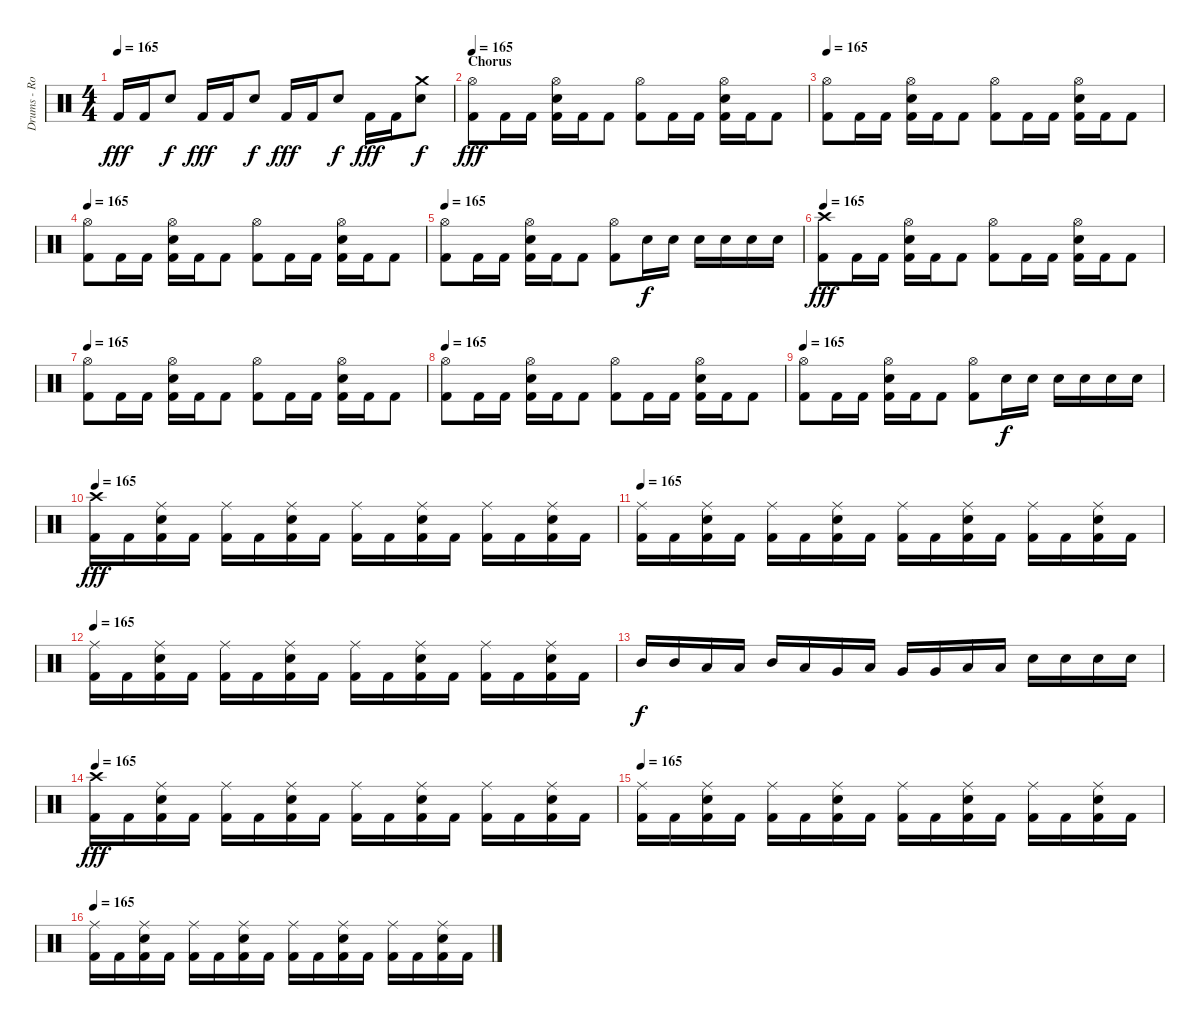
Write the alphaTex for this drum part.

\track ("Drums - Rodrigo" "Drums - Ro") {instrument percussion}
\staff {score}
\articulation defaults
\ts (4 4)
\tempo 165
\clef neutral
\ks c "Kick (hit) 2".16{dy fff} "Kick (hit) 2".16 "Electric Snare (hit)".8{dy f} "Kick (hit) 2".16{dy fff} "Kick (hit) 2".16 "Electric Snare (hit)".8{dy f} "Kick (hit) 2".16{dy fff} "Kick (hit) 2".16 "Electric Snare (hit)".8{dy f} "Kick (hit) 2".16{dy fff} "Kick (hit) 2".16
("Crash medium (hit)" "Electric Snare (hit)").8{dy f} |
\section ("" "Chorus")
\tempo 165
("Hi-Hat (open)" "Kick (hit) 2").8{dy fff} "Kick (hit) 2".16 "Kick (hit) 2".16 ("Hi-Hat (open)" "Electric Snare (hit)" "Kick (hit) 2").16 "Kick (hit) 2".16 "Kick (hit) 2".8 ("Hi-Hat (open)" "Kick (hit) 2").8 "Kick (hit) 2".16 "Kick (hit) 2".16 ("Hi-Hat (open)" "Electric Snare (hit)" "Kick (hit) 2").16 "Kick (hit) 2".16 "Kick (hit) 2".8 |
\tempo 165
("Hi-Hat (open)" "Kick (hit) 2").8 "Kick (hit) 2".16 "Kick (hit) 2".16 ("Hi-Hat (open)" "Electric Snare (hit)" "Kick (hit) 2").16 "Kick (hit) 2".16 "Kick (hit) 2".8 ("Hi-Hat (open)" "Kick (hit) 2").8 "Kick (hit) 2".16 "Kick (hit) 2".16 ("Hi-Hat (open)" "Electric Snare (hit)" "Kick (hit) 2").16 "Kick (hit) 2".16 "Kick (hit) 2".8 |
\tempo 165
("Hi-Hat (open)" "Kick (hit) 2").8 "Kick (hit) 2".16 "Kick (hit) 2".16 ("Hi-Hat (open)" "Electric Snare (hit)" "Kick (hit) 2").16 "Kick (hit) 2".16 "Kick (hit) 2".8 ("Hi-Hat (open)" "Kick (hit) 2").8 "Kick (hit) 2".16 "Kick (hit) 2".16 ("Hi-Hat (open)" "Electric Snare (hit)" "Kick (hit) 2").16 "Kick (hit) 2".16 "Kick (hit) 2".8 |
\tempo 165
("Hi-Hat (open)" "Kick (hit) 2").8 "Kick (hit) 2".16 "Kick (hit) 2".16 ("Hi-Hat (open)" "Electric Snare (hit)" "Kick (hit) 2").16 "Kick (hit) 2".16 "Kick (hit) 2".8 ("Hi-Hat (open)" "Kick (hit) 2").8 "Electric Snare (hit)".16{dy f} "Electric Snare (hit)".16 "Electric Snare (hit)".16 "Electric Snare (hit)".16 "Electric Snare (hit)".16 "Electric Snare (hit)".16 |
\tempo 165
("Crash high (hit)" "Kick (hit) 2").8{dy fff} "Kick (hit) 2".16 "Kick (hit) 2".16 ("Hi-Hat (open)" "Electric Snare (hit)" "Kick (hit) 2").16 "Kick (hit) 2".16 "Kick (hit) 2".8 ("Hi-Hat (open)" "Kick (hit) 2").8 "Kick (hit) 2".16 "Kick (hit) 2".16 ("Hi-Hat (open)" "Electric Snare (hit)" "Kick (hit) 2").16 "Kick (hit) 2".16 "Kick (hit) 2".8 |
\tempo 165
("Hi-Hat (open)" "Kick (hit) 2").8 "Kick (hit) 2".16 "Kick (hit) 2".16 ("Hi-Hat (open)" "Electric Snare (hit)" "Kick (hit) 2").16 "Kick (hit) 2".16 "Kick (hit) 2".8 ("Hi-Hat (open)" "Kick (hit) 2").8 "Kick (hit) 2".16 "Kick (hit) 2".16 ("Hi-Hat (open)" "Electric Snare (hit)" "Kick (hit) 2").16 "Kick (hit) 2".16 "Kick (hit) 2".8 |
\tempo 165
("Hi-Hat (open)" "Kick (hit) 2").8 "Kick (hit) 2".16 "Kick (hit) 2".16 ("Hi-Hat (open)" "Electric Snare (hit)" "Kick (hit) 2").16 "Kick (hit) 2".16 "Kick (hit) 2".8 ("Hi-Hat (open)" "Kick (hit) 2").8 "Kick (hit) 2".16 "Kick (hit) 2".16 ("Hi-Hat (open)" "Electric Snare (hit)" "Kick (hit) 2").16 "Kick (hit) 2".16 "Kick (hit) 2".8 |
\tempo 165
("Hi-Hat (open)" "Kick (hit) 2").8 "Kick (hit) 2".16 "Kick (hit) 2".16 ("Hi-Hat (open)" "Electric Snare (hit)" "Kick (hit) 2").16 "Kick (hit) 2".16 "Kick (hit) 2".8 ("Hi-Hat (open)" "Kick (hit) 2").8 "Electric Snare (hit)".16{dy f} "Electric Snare (hit)".16 "Electric Snare (hit)".16 "Electric Snare (hit)".16 "Electric Snare (hit)".16 "Electric Snare (hit)".16 |
\tempo 165
("Crash high (hit)" "Kick (hit) 2").16{dy fff} "Kick (hit) 2".16 ("Ride (middle)" "Electric Snare (hit)" "Kick (hit) 2").16 "Kick (hit) 2".16 ("Ride (middle)" "Kick (hit) 2").16 "Kick (hit) 2".16 ("Ride (middle)" "Electric Snare (hit)" "Kick (hit) 2").16 "Kick (hit) 2".16 ("Ride (middle)" "Kick (hit) 2").16 "Kick (hit) 2".16 ("Ride (middle)" "Electric Snare (hit)" "Kick (hit) 2").16 "Kick (hit) 2".16 ("Ride (middle)" "Kick (hit) 2").16 "Kick (hit) 2".16 ("Ride (middle)" "Electric Snare (hit)" "Kick (hit) 2").16 "Kick (hit) 2".16 |
\tempo 165
("Ride (middle)" "Kick (hit) 2").16 "Kick (hit) 2".16 ("Ride (middle)" "Electric Snare (hit)" "Kick (hit) 2").16 "Kick (hit) 2".16 ("Ride (middle)" "Kick (hit) 2").16 "Kick (hit) 2".16 ("Ride (middle)" "Electric Snare (hit)" "Kick (hit) 2").16 "Kick (hit) 2".16 ("Ride (middle)" "Kick (hit) 2").16 "Kick (hit) 2".16 ("Ride (middle)" "Electric Snare (hit)" "Kick (hit) 2").16 "Kick (hit) 2".16 ("Ride (middle)" "Kick (hit) 2").16 "Kick (hit) 2".16 ("Ride (middle)" "Electric Snare (hit)" "Kick (hit) 2").16 "Kick (hit) 2".16 |
\tempo 165
("Ride (middle)" "Kick (hit) 2").16 "Kick (hit) 2".16 ("Ride (middle)" "Electric Snare (hit)" "Kick (hit) 2").16 "Kick (hit) 2".16 ("Ride (middle)" "Kick (hit) 2").16 "Kick (hit) 2".16 ("Ride (middle)" "Electric Snare (hit)" "Kick (hit) 2").16 "Kick (hit) 2".16 ("Ride (middle)" "Kick (hit) 2").16 "Kick (hit) 2".16 ("Ride (middle)" "Electric Snare (hit)" "Kick (hit) 2").16 "Kick (hit) 2".16 ("Ride (middle)" "Kick (hit) 2").16 "Kick (hit) 2".16 ("Ride (middle)" "Electric Snare (hit)" "Kick (hit) 2").16 "Kick (hit) 2".16 |
"Mid Tom (hit)".16{dy f} "Mid Tom (hit)".16 "Low Tom (hit)".16 "Low Tom (hit)".16 "Mid Tom (hit)".16 "Low Tom (hit)".16 "Very Low Tom (hit)".16 "Low Floor Tom (hit)".16 "Very Low Tom (hit)".16 "Very Low Tom (hit)".16 "Low Floor Tom (hit)".16 "Low Floor Tom (hit)".16 "Electric Snare (hit)".16 "Electric Snare (hit)".16 "Electric Snare (hit)".16 "Electric Snare (hit)".16 |
\tempo 165
("Crash high (hit)" "Kick (hit) 2").16{dy fff} "Kick (hit) 2".16 ("Ride (middle)" "Electric Snare (hit)" "Kick (hit) 2").16 "Kick (hit) 2".16 ("Ride (middle)" "Kick (hit) 2").16 "Kick (hit) 2".16 ("Ride (middle)" "Electric Snare (hit)" "Kick (hit) 2").16 "Kick (hit) 2".16 ("Ride (middle)" "Kick (hit) 2").16 "Kick (hit) 2".16 ("Ride (middle)" "Electric Snare (hit)" "Kick (hit) 2").16 "Kick (hit) 2".16 ("Ride (middle)" "Kick (hit) 2").16 "Kick (hit) 2".16 ("Ride (middle)" "Electric Snare (hit)" "Kick (hit) 2").16 "Kick (hit) 2".16 |
\tempo 165
("Ride (middle)" "Kick (hit) 2").16 "Kick (hit) 2".16 ("Ride (middle)" "Electric Snare (hit)" "Kick (hit) 2").16 "Kick (hit) 2".16 ("Ride (middle)" "Kick (hit) 2").16 "Kick (hit) 2".16 ("Ride (middle)" "Electric Snare (hit)" "Kick (hit) 2").16 "Kick (hit) 2".16 ("Ride (middle)" "Kick (hit) 2").16 "Kick (hit) 2".16 ("Ride (middle)" "Electric Snare (hit)" "Kick (hit) 2").16 "Kick (hit) 2".16 ("Ride (middle)" "Kick (hit) 2").16 "Kick (hit) 2".16 ("Ride (middle)" "Electric Snare (hit)" "Kick (hit) 2").16 "Kick (hit) 2".16 |
\tempo 165
("Ride (middle)" "Kick (hit) 2").16 "Kick (hit) 2".16 ("Ride (middle)" "Electric Snare (hit)" "Kick (hit) 2").16 "Kick (hit) 2".16 ("Ride (middle)" "Kick (hit) 2").16 "Kick (hit) 2".16 ("Ride (middle)" "Electric Snare (hit)" "Kick (hit) 2").16 "Kick (hit) 2".16 ("Ride (middle)" "Kick (hit) 2").16 "Kick (hit) 2".16 ("Ride (middle)" "Electric Snare (hit)" "Kick (hit) 2").16 "Kick (hit) 2".16 ("Ride (middle)" "Kick (hit) 2").16 "Kick (hit) 2".16 ("Ride (middle)" "Electric Snare (hit)" "Kick (hit) 2").16 "Kick (hit) 2".16
